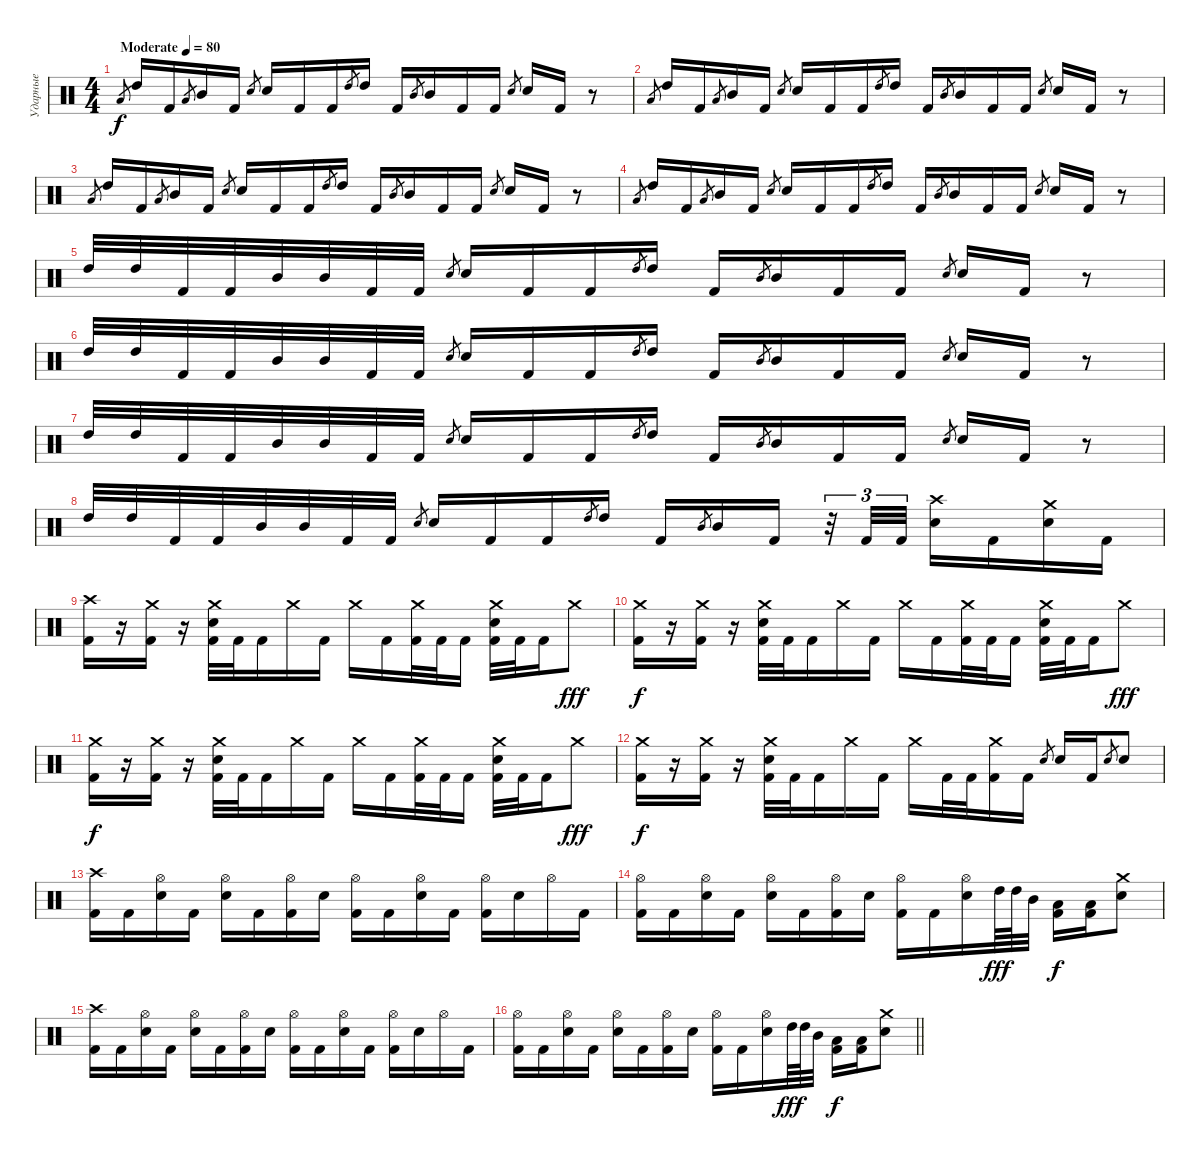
\track ("Ударные" "Ударные") {instrument percussion}
\staff {score}
\articulation defaults
\ts (4 4)
\tempo (80 "Moderate")
\clef neutral
\ks c "Low Tom (hit)".8{gr dy f} "High Tom (hit)".16 "Kick (hit) 2".16 "Low Tom (hit)".8{gr} "Mid Tom (hit)".16 "Kick (hit) 2".16 "Electric Snare (hit)".8{gr} "Electric Snare (hit)".16 "Kick (hit) 2".16 "Kick (hit) 2".16 "High Tom (hit)".8{gr} "High Tom (hit)".16 "Kick (hit) 2".16 "Mid Tom (hit)".8{gr} "Mid Tom (hit)".16 "Kick (hit) 2".16 "Kick (hit) 2".16 "Electric Snare (hit)".8{gr} "Electric Snare (hit)".16 "Kick (hit) 2".16
r.8 |
"Low Tom (hit)".8{gr} "High Tom (hit)".16 "Kick (hit) 2".16 "Low Tom (hit)".8{gr} "Mid Tom (hit)".16 "Kick (hit) 2".16 "Electric Snare (hit)".8{gr} "Electric Snare (hit)".16 "Kick (hit) 2".16 "Kick (hit) 2".16 "High Tom (hit)".8{gr} "High Tom (hit)".16 "Kick (hit) 2".16 "Mid Tom (hit)".8{gr} "Mid Tom (hit)".16 "Kick (hit) 2".16 "Kick (hit) 2".16 "Electric Snare (hit)".8{gr} "Electric Snare (hit)".16 "Kick (hit) 2".16 r.8 |
"Low Tom (hit)".8{gr} "High Tom (hit)".16 "Kick (hit) 2".16 "Low Tom (hit)".8{gr} "Mid Tom (hit)".16 "Kick (hit) 2".16 "Electric Snare (hit)".8{gr} "Electric Snare (hit)".16 "Kick (hit) 2".16 "Kick (hit) 2".16 "High Tom (hit)".8{gr} "High Tom (hit)".16 "Kick (hit) 2".16 "Mid Tom (hit)".8{gr} "Mid Tom (hit)".16 "Kick (hit) 2".16 "Kick (hit) 2".16 "Electric Snare (hit)".8{gr} "Electric Snare (hit)".16 "Kick (hit) 2".16 r.8 |
"Low Tom (hit)".8{gr} "High Tom (hit)".16 "Kick (hit) 2".16 "Low Tom (hit)".8{gr} "Mid Tom (hit)".16 "Kick (hit) 2".16 "Electric Snare (hit)".8{gr} "Electric Snare (hit)".16 "Kick (hit) 2".16 "Kick (hit) 2".16 "High Tom (hit)".8{gr} "High Tom (hit)".16 "Kick (hit) 2".16 "Mid Tom (hit)".8{gr} "Mid Tom (hit)".16 "Kick (hit) 2".16 "Kick (hit) 2".16 "Electric Snare (hit)".8{gr} "Electric Snare (hit)".16 "Kick (hit) 2".16 r.8 |
"High Tom (hit)".32 "High Tom (hit)".32 "Kick (hit) 2".32 "Kick (hit) 2".32 "Mid Tom (hit)".32 "Mid Tom (hit)".32 "Kick (hit) 2".32 "Kick (hit) 2".32 "Electric Snare (hit)".8{gr} "Electric Snare (hit)".16 "Kick (hit) 2".16 "Kick (hit) 2".16 "High Tom (hit)".8{gr} "High Tom (hit)".16 "Kick (hit) 2".16 "Mid Tom (hit)".8{gr} "Mid Tom (hit)".16 "Kick (hit) 2".16 "Kick (hit) 2".16 "Electric Snare (hit)".8{gr} "Electric Snare (hit)".16 "Kick (hit) 2".16 r.8 |
"High Tom (hit)".32 "High Tom (hit)".32 "Kick (hit) 2".32 "Kick (hit) 2".32 "Mid Tom (hit)".32 "Mid Tom (hit)".32 "Kick (hit) 2".32 "Kick (hit) 2".32 "Electric Snare (hit)".8{gr} "Electric Snare (hit)".16 "Kick (hit) 2".16 "Kick (hit) 2".16 "High Tom (hit)".8{gr} "High Tom (hit)".16 "Kick (hit) 2".16 "Mid Tom (hit)".8{gr} "Mid Tom (hit)".16 "Kick (hit) 2".16 "Kick (hit) 2".16 "Electric Snare (hit)".8{gr} "Electric Snare (hit)".16 "Kick (hit) 2".16 r.8 |
"High Tom (hit)".32 "High Tom (hit)".32 "Kick (hit) 2".32 "Kick (hit) 2".32 "Mid Tom (hit)".32 "Mid Tom (hit)".32 "Kick (hit) 2".32 "Kick (hit) 2".32 "Electric Snare (hit)".8{gr} "Electric Snare (hit)".16 "Kick (hit) 2".16 "Kick (hit) 2".16 "High Tom (hit)".8{gr} "High Tom (hit)".16 "Kick (hit) 2".16 "Mid Tom (hit)".8{gr} "Mid Tom (hit)".16 "Kick (hit) 2".16 "Kick (hit) 2".16 "Electric Snare (hit)".8{gr} "Electric Snare (hit)".16 "Kick (hit) 2".16 r.8 |
"High Tom (hit)".32 "High Tom (hit)".32 "Kick (hit) 2".32 "Kick (hit) 2".32 "Mid Tom (hit)".32 "Mid Tom (hit)".32 "Kick (hit) 2".32 "Kick (hit) 2".32 "Electric Snare (hit)".8{gr} "Electric Snare (hit)".16 "Kick (hit) 2".16 "Kick (hit) 2".16 "High Tom (hit)".8{gr} "High Tom (hit)".16 "Kick (hit) 2".16 "Mid Tom (hit)".8{gr} "Mid Tom (hit)".16 "Kick (hit) 2".16 r.32{tu (3 2)} "Kick (hit) 2".32{tu (3 2)} "Kick (hit) 2".32{tu (3 2)} ("Crash high (hit)" "Electric Snare (hit)").16 "Kick (hit) 2".16 ("Crash medium (hit)" "Electric Snare (hit)").16 "Kick (hit) 2".16 |
("Crash high (hit)" "Kick (hit) 2").16 r.16 ("Crash medium (hit)" "Kick (hit) 2").16 r.16 ("Crash medium (hit)" "Kick (hit) 2" "Electric Snare (hit)").32 "Kick (hit) 2".32 "Kick (hit) 2".16 "Crash medium (hit)".16 "Kick (hit) 2".16 "Crash medium (hit)".16 "Kick (hit) 2".16 ("Crash medium (hit)" "Kick (hit) 2").32 "Kick (hit) 2".32 "Kick (hit) 2".16 ("Crash medium (hit)" "Kick (hit) 2" "Electric Snare (hit)").32 "Kick (hit) 2".32 "Kick (hit) 2".16 "Crash medium (hit)".8{dy fff} |
("Crash medium (hit)" "Kick (hit) 2").16{dy f} r.16 ("Crash medium (hit)" "Kick (hit) 2").16 r.16 ("Crash medium (hit)" "Kick (hit) 2" "Electric Snare (hit)").32 "Kick (hit) 2".32 "Kick (hit) 2".16 "Crash medium (hit)".16 "Kick (hit) 2".16 "Crash medium (hit)".16 "Kick (hit) 2".16 ("Crash medium (hit)" "Kick (hit) 2").32 "Kick (hit) 2".32 "Kick (hit) 2".16 ("Crash medium (hit)" "Kick (hit) 2" "Electric Snare (hit)").32 "Kick (hit) 2".32 "Kick (hit) 2".16 "Crash medium (hit)".8{dy fff} |
("Crash medium (hit)" "Kick (hit) 2").16{dy f} r.16 ("Crash medium (hit)" "Kick (hit) 2").16 r.16 ("Crash medium (hit)" "Kick (hit) 2" "Electric Snare (hit)").32 "Kick (hit) 2".32 "Kick (hit) 2".16 "Crash medium (hit)".16 "Kick (hit) 2".16 "Crash medium (hit)".16 "Kick (hit) 2".16 ("Crash medium (hit)" "Kick (hit) 2").32 "Kick (hit) 2".32 "Kick (hit) 2".16 ("Crash medium (hit)" "Kick (hit) 2" "Electric Snare (hit)").32 "Kick (hit) 2".32 "Kick (hit) 2".16 "Crash medium (hit)".8{dy fff} |
("Crash medium (hit)" "Kick (hit) 2").16{dy f} r.16 ("Crash medium (hit)" "Kick (hit) 2").16 r.16 ("Crash medium (hit)" "Kick (hit) 2" "Electric Snare (hit)").32 "Kick (hit) 2".32 "Kick (hit) 2".16 "Crash medium (hit)".16 "Kick (hit) 2".16 "Crash medium (hit)".16 "Kick (hit) 2".32 "Kick (hit) 2".32 ("Crash medium (hit)" "Kick (hit) 2").16 "Kick (hit) 2".16 "Electric Snare (hit)".8{gr} "Electric Snare (hit)".16 "Kick (hit) 2".16 "Electric Snare (hit)".8{gr} "Electric Snare (hit)".8 |
("Crash high (hit)" "Kick (hit) 2").16 "Kick (hit) 2".16 ("Electric Snare (hit)" "Hi-Hat (open)").16 "Kick (hit) 2".16 ("Electric Snare (hit)" "Hi-Hat (open)").16 "Kick (hit) 2".16 ("Kick (hit) 2" "Hi-Hat (open)").16 "Electric Snare (hit)".16 ("Kick (hit) 2" "Hi-Hat (open)").16 "Kick (hit) 2".16 ("Electric Snare (hit)" "Hi-Hat (open)").16 "Kick (hit) 2".16 ("Kick (hit) 2" "Hi-Hat (open)").16 "Electric Snare (hit)".16 "Hi-Hat (open)".16 "Kick (hit) 2".16 |
("Hi-Hat (open)" "Kick (hit) 2").16 "Kick (hit) 2".16 ("Electric Snare (hit)" "Hi-Hat (open)").16 "Kick (hit) 2".16 ("Electric Snare (hit)" "Hi-Hat (open)").16 "Kick (hit) 2".16 ("Kick (hit) 2" "Hi-Hat (open)").16 "Electric Snare (hit)".16 ("Kick (hit) 2" "Hi-Hat (open)").16 "Kick (hit) 2".16 ("Electric Snare (hit)" "Hi-Hat (open)").16 "High Tom (hit)".64{dy fff} "High Tom (hit)".64 "Mid Tom (hit)".32 ("Kick (hit) 2" "Low Tom (hit)").16{dy f} ("Kick (hit) 2" "Low Tom (hit)").16 ("Crash medium (hit)" "Electric Snare (hit)").8 |
("Crash high (hit)" "Kick (hit) 2").16 "Kick (hit) 2".16 ("Electric Snare (hit)" "Hi-Hat (open)").16 "Kick (hit) 2".16 ("Electric Snare (hit)" "Hi-Hat (open)").16 "Kick (hit) 2".16 ("Kick (hit) 2" "Hi-Hat (open)").16 "Electric Snare (hit)".16 ("Kick (hit) 2" "Hi-Hat (open)").16 "Kick (hit) 2".16 ("Electric Snare (hit)" "Hi-Hat (open)").16 "Kick (hit) 2".16 ("Kick (hit) 2" "Hi-Hat (open)").16 "Electric Snare (hit)".16 "Hi-Hat (open)".16 "Kick (hit) 2".16 |
\barLineRight lightlight
("Hi-Hat (open)" "Kick (hit) 2").16 "Kick (hit) 2".16 ("Electric Snare (hit)" "Hi-Hat (open)").16 "Kick (hit) 2".16 ("Electric Snare (hit)" "Hi-Hat (open)").16 "Kick (hit) 2".16 ("Kick (hit) 2" "Hi-Hat (open)").16 "Electric Snare (hit)".16 ("Kick (hit) 2" "Hi-Hat (open)").16 "Kick (hit) 2".16 ("Electric Snare (hit)" "Hi-Hat (open)").16 "High Tom (hit)".64{dy fff} "High Tom (hit)".64 "Mid Tom (hit)".32 ("Kick (hit) 2" "Low Tom (hit)").16{dy f} ("Kick (hit) 2" "Low Tom (hit)").16 ("Crash medium (hit)" "Electric Snare (hit)").8
